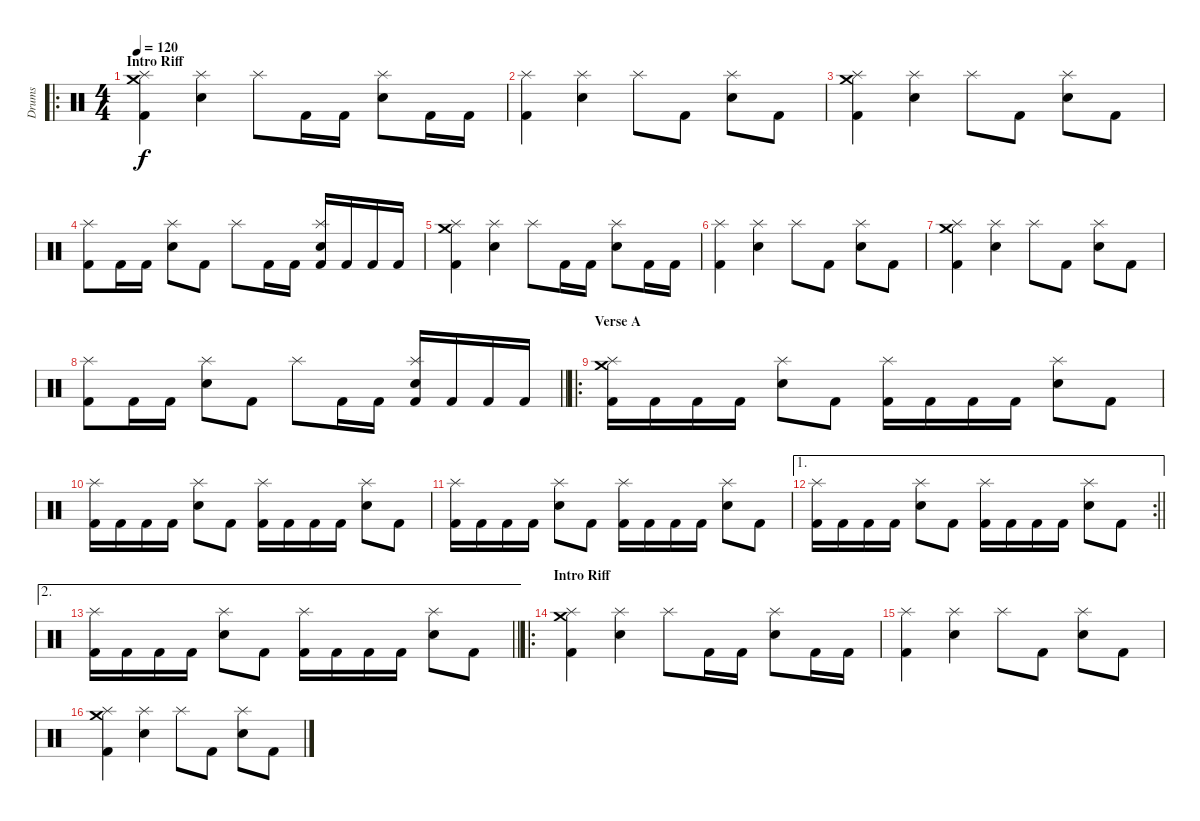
\track ("Drums" "Drums") {instrument percussion}
\staff {score}
\articulation defaults
\ro
\ts (4 4)
\section ("" "Intro Riff")
\tempo 120
\clef neutral
\ks c
("Kick (hit) 2" "Splash (hit)" "Crash medium (hit)").4{dy f} ("Snare (hit) 2" "Splash (hit)").4 "Splash (hit)".8 "Kick (hit) 2".16 "Kick (hit) 2".16 ("Snare (hit) 2" "Splash (hit)").8 "Kick (hit) 2".16 "Kick (hit) 2".16 |
("Kick (hit) 2" "Splash (hit)").4 ("Snare (hit) 2" "Splash (hit)").4 "Splash (hit)".8 "Kick (hit) 2".8 ("Snare (hit) 2" "Splash (hit)").8 "Kick (hit) 2".8 |
("Kick (hit) 2" "Splash (hit)" "Crash medium (hit)").4 ("Snare (hit) 2" "Splash (hit)").4 "Splash (hit)".8 "Kick (hit) 2".8 ("Snare (hit) 2" "Splash (hit)").8 "Kick (hit) 2".8 |
("Kick (hit) 2" "Splash (hit)").8 "Kick (hit) 2".16 "Kick (hit) 2".16 ("Snare (hit) 2" "Splash (hit)").8 "Kick (hit) 2".8 "Splash (hit)".8 "Kick (hit) 2".16 "Kick (hit) 2".16 ("Kick (hit) 2" "Snare (hit) 2" "Splash (hit)").16 "Kick (hit) 2".16 "Kick (hit) 2".16 "Kick (hit) 2".16 |
("Kick (hit) 2" "Splash (hit)" "Crash medium (hit)").4 ("Snare (hit) 2" "Splash (hit)").4 "Splash (hit)".8 "Kick (hit) 2".16 "Kick (hit) 2".16 ("Snare (hit) 2" "Splash (hit)").8 "Kick (hit) 2".16 "Kick (hit) 2".16 |
("Kick (hit) 2" "Splash (hit)").4 ("Snare (hit) 2" "Splash (hit)").4 "Splash (hit)".8 "Kick (hit) 2".8 ("Snare (hit) 2" "Splash (hit)").8 "Kick (hit) 2".8 |
("Kick (hit) 2" "Splash (hit)" "Crash medium (hit)").4 ("Snare (hit) 2" "Splash (hit)").4 "Splash (hit)".8 "Kick (hit) 2".8 ("Snare (hit) 2" "Splash (hit)").8 "Kick (hit) 2".8 |
\barLineRight lightlight
("Kick (hit) 2" "Splash (hit)").8 "Kick (hit) 2".16 "Kick (hit) 2".16 ("Snare (hit) 2" "Splash (hit)").8 "Kick (hit) 2".8 "Splash (hit)".8 "Kick (hit) 2".16 "Kick (hit) 2".16 ("Kick (hit) 2" "Snare (hit) 2" "Splash (hit)").16 "Kick (hit) 2".16 "Kick (hit) 2".16 "Kick (hit) 2".16 |
\ro
\section ("" "Verse A")
("Kick (hit) 2" "Splash (hit)" "Crash medium (hit)").16 "Kick (hit) 2".16 "Kick (hit) 2".16 "Kick (hit) 2".16 ("Snare (hit) 2" "Splash (hit)").8 "Kick (hit) 2".8 ("Kick (hit) 2" "Splash (hit)").16 "Kick (hit) 2".16 "Kick (hit) 2".16 "Kick (hit) 2".16 ("Snare (hit) 2" "Splash (hit)").8 "Kick (hit) 2".8 |
("Kick (hit) 2" "Splash (hit)").16 "Kick (hit) 2".16 "Kick (hit) 2".16 "Kick (hit) 2".16 ("Snare (hit) 2" "Splash (hit)").8 "Kick (hit) 2".8 ("Kick (hit) 2" "Splash (hit)").16 "Kick (hit) 2".16 "Kick (hit) 2".16 "Kick (hit) 2".16 ("Snare (hit) 2" "Splash (hit)").8 "Kick (hit) 2".8 |
("Kick (hit) 2" "Splash (hit)").16 "Kick (hit) 2".16 "Kick (hit) 2".16 "Kick (hit) 2".16 ("Snare (hit) 2" "Splash (hit)").8 "Kick (hit) 2".8 ("Kick (hit) 2" "Splash (hit)").16 "Kick (hit) 2".16 "Kick (hit) 2".16 "Kick (hit) 2".16 ("Snare (hit) 2" "Splash (hit)").8 "Kick (hit) 2".8 |
\ae 1
\rc 2
\barLineRight lightlight
("Kick (hit) 2" "Splash (hit)").16 "Kick (hit) 2".16 "Kick (hit) 2".16 "Kick (hit) 2".16 ("Snare (hit) 2" "Splash (hit)").8 "Kick (hit) 2".8 ("Kick (hit) 2" "Splash (hit)").16 "Kick (hit) 2".16 "Kick (hit) 2".16 "Kick (hit) 2".16 ("Snare (hit) 2" "Splash (hit)").8 "Kick (hit) 2".8 |
\ae 2
\barLineRight lightlight
("Kick (hit) 2" "Splash (hit)").16 "Kick (hit) 2".16 "Kick (hit) 2".16 "Kick (hit) 2".16 ("Snare (hit) 2" "Splash (hit)").8 "Kick (hit) 2".8 ("Kick (hit) 2" "Splash (hit)").16 "Kick (hit) 2".16 "Kick (hit) 2".16 "Kick (hit) 2".16 ("Snare (hit) 2" "Splash (hit)").8 "Kick (hit) 2".8 |
\ro
\section ("" "Intro Riff")
("Kick (hit) 2" "Splash (hit)" "Crash medium (hit)").4 ("Snare (hit) 2" "Splash (hit)").4 "Splash (hit)".8 "Kick (hit) 2".16 "Kick (hit) 2".16 ("Snare (hit) 2" "Splash (hit)").8 "Kick (hit) 2".16 "Kick (hit) 2".16 |
("Kick (hit) 2" "Splash (hit)").4 ("Snare (hit) 2" "Splash (hit)").4 "Splash (hit)".8 "Kick (hit) 2".8 ("Snare (hit) 2" "Splash (hit)").8 "Kick (hit) 2".8 |
("Kick (hit) 2" "Splash (hit)" "Crash medium (hit)").4 ("Snare (hit) 2" "Splash (hit)").4 "Splash (hit)".8 "Kick (hit) 2".8 ("Snare (hit) 2" "Splash (hit)").8 "Kick (hit) 2".8
